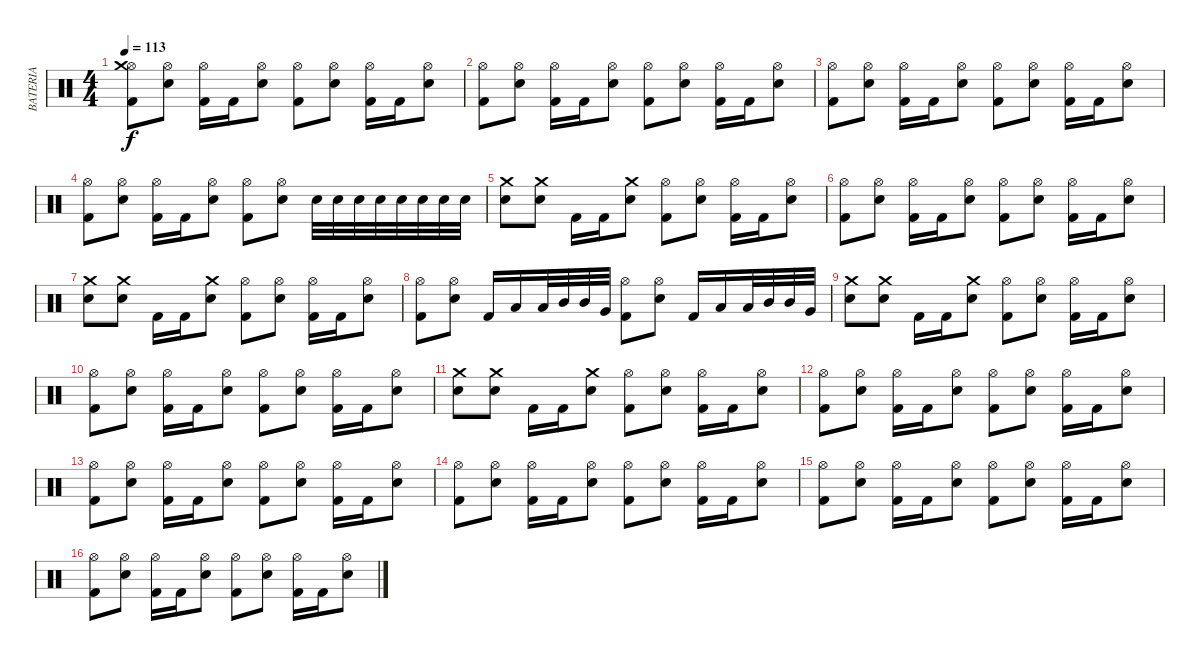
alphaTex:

\track ("BATERIA" "BATERIA") {instrument percussion}
\staff {score}
\articulation defaults
\ts (4 4)
\tempo 113
\clef neutral
\ks c
("Hi-Hat (open)" "Kick (hit) 2" "Crash medium (hit)").8{dy f} ("Hi-Hat (open)" "Electric Snare (hit)").8 ("Hi-Hat (open)" "Kick (hit) 2").16 "Kick (hit) 2".16 ("Hi-Hat (open)" "Electric Snare (hit)").8 ("Hi-Hat (open)" "Kick (hit) 2").8 ("Hi-Hat (open)" "Electric Snare (hit)").8 ("Hi-Hat (open)" "Kick (hit) 2").16 "Kick (hit) 2".16 ("Hi-Hat (open)" "Electric Snare (hit)").8 |
("Hi-Hat (open)" "Kick (hit) 2").8 ("Hi-Hat (open)" "Electric Snare (hit)").8 ("Hi-Hat (open)" "Kick (hit) 2").16 "Kick (hit) 2".16 ("Hi-Hat (open)" "Electric Snare (hit)").8 ("Hi-Hat (open)" "Kick (hit) 2").8 ("Hi-Hat (open)" "Electric Snare (hit)").8 ("Hi-Hat (open)" "Kick (hit) 2").16 "Kick (hit) 2".16 ("Hi-Hat (open)" "Electric Snare (hit)").8 |
("Hi-Hat (open)" "Kick (hit) 2").8 ("Hi-Hat (open)" "Electric Snare (hit)").8 ("Hi-Hat (open)" "Kick (hit) 2").16 "Kick (hit) 2".16 ("Hi-Hat (open)" "Electric Snare (hit)").8 ("Hi-Hat (open)" "Kick (hit) 2").8 ("Hi-Hat (open)" "Electric Snare (hit)").8 ("Hi-Hat (open)" "Kick (hit) 2").16 "Kick (hit) 2".16 ("Hi-Hat (open)" "Electric Snare (hit)").8 |
("Hi-Hat (open)" "Kick (hit) 2").8 ("Hi-Hat (open)" "Electric Snare (hit)").8 ("Hi-Hat (open)" "Kick (hit) 2").16 "Kick (hit) 2".16 ("Hi-Hat (open)" "Electric Snare (hit)").8 ("Hi-Hat (open)" "Kick (hit) 2").8 ("Hi-Hat (open)" "Electric Snare (hit)").8 "Electric Snare (hit)".32 "Electric Snare (hit)".32 "Electric Snare (hit)".32 "Electric Snare (hit)".32 "Electric Snare (hit)".32 "Electric Snare (hit)".32 "Electric Snare (hit)".32 "Electric Snare (hit)".32 |
("Crash medium (hit)" "Electric Snare (hit)").8 ("Crash medium (hit)" "Electric Snare (hit)").8 "Kick (hit) 2".16 "Kick (hit) 2".16 ("Crash medium (hit)" "Electric Snare (hit)").8 ("Hi-Hat (open)" "Kick (hit) 2").8 ("Hi-Hat (open)" "Electric Snare (hit)").8 ("Hi-Hat (open)" "Kick (hit) 2").16 "Kick (hit) 2".16 ("Hi-Hat (open)" "Electric Snare (hit)").8 |
("Hi-Hat (open)" "Kick (hit) 2").8 ("Hi-Hat (open)" "Electric Snare (hit)").8 ("Hi-Hat (open)" "Kick (hit) 2").16 "Kick (hit) 2".16 ("Hi-Hat (open)" "Electric Snare (hit)").8 ("Hi-Hat (open)" "Kick (hit) 2").8 ("Hi-Hat (open)" "Electric Snare (hit)").8 ("Hi-Hat (open)" "Kick (hit) 2").16 "Kick (hit) 2".16 ("Hi-Hat (open)" "Electric Snare (hit)").8 |
("Crash medium (hit)" "Electric Snare (hit)").8 ("Crash medium (hit)" "Electric Snare (hit)").8 "Kick (hit) 2".16 "Kick (hit) 2".16 ("Crash medium (hit)" "Electric Snare (hit)").8 ("Hi-Hat (open)" "Kick (hit) 2").8 ("Hi-Hat (open)" "Electric Snare (hit)").8 ("Hi-Hat (open)" "Kick (hit) 2").16 "Kick (hit) 2".16 ("Hi-Hat (open)" "Electric Snare (hit)").8 |
("Hi-Hat (open)" "Kick (hit) 2").8 ("Hi-Hat (open)" "Electric Snare (hit)").8 "Kick (hit) 2".16 "Low Tom (hit)".16 "Low Tom (hit)".32 "Mid Tom (hit)".32 "Mid Tom (hit)".32 "Very Low Tom (hit)".32 ("Hi-Hat (open)" "Kick (hit) 2").8 ("Hi-Hat (open)" "Electric Snare (hit)").8 "Kick (hit) 2".16 "Low Tom (hit)".16 "Low Tom (hit)".32 "Mid Tom (hit)".32 "Mid Tom (hit)".32 "Very Low Tom (hit)".32 |
("Crash medium (hit)" "Electric Snare (hit)").8 ("Crash medium (hit)" "Electric Snare (hit)").8 "Kick (hit) 2".16 "Kick (hit) 2".16 ("Crash medium (hit)" "Electric Snare (hit)").8 ("Hi-Hat (open)" "Kick (hit) 2").8 ("Hi-Hat (open)" "Electric Snare (hit)").8 ("Hi-Hat (open)" "Kick (hit) 2").16 "Kick (hit) 2".16 ("Hi-Hat (open)" "Electric Snare (hit)").8 |
("Hi-Hat (open)" "Kick (hit) 2").8 ("Hi-Hat (open)" "Electric Snare (hit)").8 ("Hi-Hat (open)" "Kick (hit) 2").16 "Kick (hit) 2".16 ("Hi-Hat (open)" "Electric Snare (hit)").8 ("Hi-Hat (open)" "Kick (hit) 2").8 ("Hi-Hat (open)" "Electric Snare (hit)").8 ("Hi-Hat (open)" "Kick (hit) 2").16 "Kick (hit) 2".16 ("Hi-Hat (open)" "Electric Snare (hit)").8 |
("Crash medium (hit)" "Electric Snare (hit)").8 ("Crash medium (hit)" "Electric Snare (hit)").8 "Kick (hit) 2".16 "Kick (hit) 2".16 ("Crash medium (hit)" "Electric Snare (hit)").8 ("Hi-Hat (open)" "Kick (hit) 2").8 ("Hi-Hat (open)" "Electric Snare (hit)").8 ("Hi-Hat (open)" "Kick (hit) 2").16 "Kick (hit) 2".16 ("Hi-Hat (open)" "Electric Snare (hit)").8 |
("Hi-Hat (open)" "Kick (hit) 2").8 ("Hi-Hat (open)" "Electric Snare (hit)").8 ("Hi-Hat (open)" "Kick (hit) 2").16 "Kick (hit) 2".16 ("Hi-Hat (open)" "Electric Snare (hit)").8 ("Hi-Hat (open)" "Kick (hit) 2").8 ("Hi-Hat (open)" "Electric Snare (hit)").8 ("Hi-Hat (open)" "Kick (hit) 2").16 "Kick (hit) 2".16 ("Hi-Hat (open)" "Electric Snare (hit)").8 |
("Hi-Hat (open)" "Kick (hit) 2").8 ("Hi-Hat (open)" "Electric Snare (hit)").8 ("Hi-Hat (open)" "Kick (hit) 2").16 "Kick (hit) 2".16 ("Hi-Hat (open)" "Electric Snare (hit)").8 ("Hi-Hat (open)" "Kick (hit) 2").8 ("Hi-Hat (open)" "Electric Snare (hit)").8 ("Hi-Hat (open)" "Kick (hit) 2").16 "Kick (hit) 2".16 ("Hi-Hat (open)" "Electric Snare (hit)").8 |
("Hi-Hat (open)" "Kick (hit) 2").8 ("Hi-Hat (open)" "Electric Snare (hit)").8 ("Hi-Hat (open)" "Kick (hit) 2").16 "Kick (hit) 2".16 ("Hi-Hat (open)" "Electric Snare (hit)").8 ("Hi-Hat (open)" "Kick (hit) 2").8 ("Hi-Hat (open)" "Electric Snare (hit)").8 ("Hi-Hat (open)" "Kick (hit) 2").16 "Kick (hit) 2".16 ("Hi-Hat (open)" "Electric Snare (hit)").8 |
("Hi-Hat (open)" "Kick (hit) 2").8 ("Hi-Hat (open)" "Electric Snare (hit)").8 ("Hi-Hat (open)" "Kick (hit) 2").16 "Kick (hit) 2".16 ("Hi-Hat (open)" "Electric Snare (hit)").8 ("Hi-Hat (open)" "Kick (hit) 2").8 ("Hi-Hat (open)" "Electric Snare (hit)").8 ("Hi-Hat (open)" "Kick (hit) 2").16 "Kick (hit) 2".16 ("Hi-Hat (open)" "Electric Snare (hit)").8 |
("Hi-Hat (open)" "Kick (hit) 2").8 ("Hi-Hat (open)" "Electric Snare (hit)").8 ("Hi-Hat (open)" "Kick (hit) 2").16 "Kick (hit) 2".16 ("Hi-Hat (open)" "Electric Snare (hit)").8 ("Hi-Hat (open)" "Kick (hit) 2").8 ("Hi-Hat (open)" "Electric Snare (hit)").8 ("Hi-Hat (open)" "Kick (hit) 2").16 "Kick (hit) 2".16 ("Hi-Hat (open)" "Electric Snare (hit)").8
